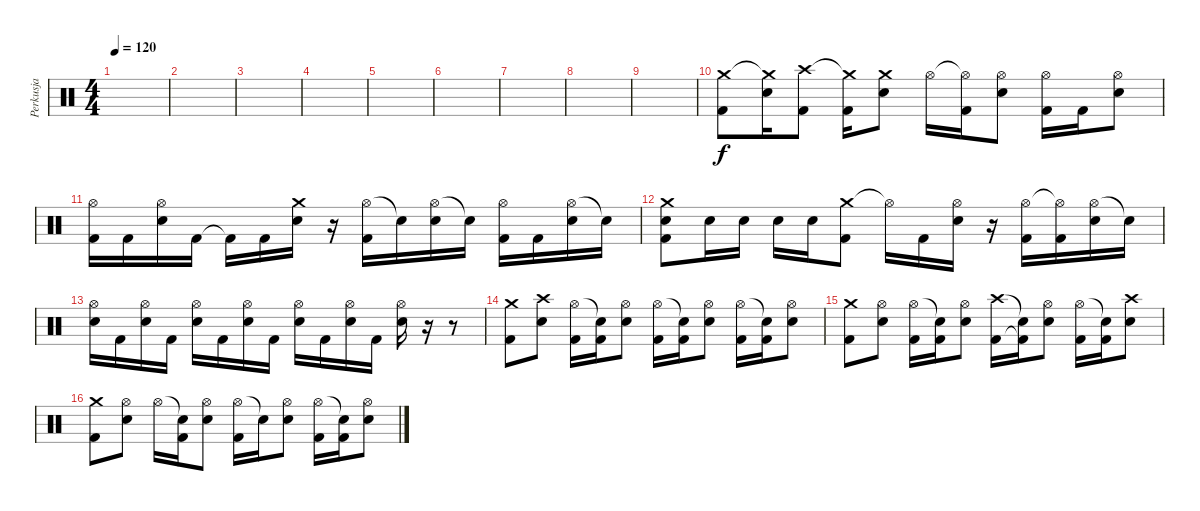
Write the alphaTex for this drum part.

\track ("Perkusja" "Perkusja") {instrument percussion}
\staff {score}
\articulation defaults
\ts (4 4)
\tempo 120
\clef neutral
\ks c
|
|
|
|
|
|
|
|
|
("Crash medium (hit)" "Kick (hit) 2").8 ("Crash medium (hit)"{t} "Electric Snare (hit)").16 ("Crash high (hit)" "Kick (hit) 2").8 ("Crash medium (hit)"{t} "Kick (hit) 2").16 ("Crash medium (hit)" "Electric Snare (hit)").8 "Hi-Hat (open)".16 ("Hi-Hat (open)"{t} "Kick (hit) 2").16 ("Hi-Hat (open)" "Electric Snare (hit)").8 ("Hi-Hat (open)" "Kick (hit) 2").16 "Kick (hit) 2".16 ("Hi-Hat (open)" "Electric Snare (hit)").8 |
("Hi-Hat (open)" "Kick (hit) 2").16 "Kick (hit) 2".16 ("Hi-Hat (open)" "Electric Snare (hit)").16 "Kick (hit) 2".16 "Kick (hit) 2"{t}.16 "Kick (hit) 2".16 ("Crash medium (hit)" "Electric Snare (hit)").16 r.16 ("Hi-Hat (open)" "Kick (hit) 2").16 "Snare (hit)"{t}.16 ("Hi-Hat (open)" "Electric Snare (hit)").16 "Snare (hit)"{t}.16 ("Hi-Hat (open)" "Kick (hit) 2").16 "Kick (hit) 2".16 ("Hi-Hat (open)" "Electric Snare (hit)").16 "Snare (hit)"{t}.16 |
("Crash medium (hit)" "Electric Snare (hit)" "Kick (hit) 2").8 "Electric Snare (hit)".16 "Electric Snare (hit)".16 "Electric Snare (hit)".16 "Electric Snare (hit)".16 ("Crash medium (hit)" "Kick (hit) 2").8 "Hi-Hat (open)"{t}.16 "Kick (hit) 2".16 ("Hi-Hat (open)" "Electric Snare (hit)").16 r.16 ("Hi-Hat (open)" "Kick (hit) 2").16 ("Hi-Hat (open)"{t} "Kick (hit) 2").16 ("Hi-Hat (open)" "Electric Snare (hit)").16 "Snare (hit)"{t}.16 |
("Electric Snare (hit)" "Hi-Hat (open)").16 "Kick (hit) 2".16 ("Electric Snare (hit)" "Hi-Hat (open)").16 "Kick (hit) 2".16 ("Electric Snare (hit)" "Hi-Hat (open)").16 "Kick (hit) 2".16 ("Electric Snare (hit)" "Hi-Hat (open)").16 "Kick (hit) 2".16 ("Electric Snare (hit)" "Hi-Hat (open)").16 "Kick (hit) 2".16 ("Electric Snare (hit)" "Hi-Hat (open)").16 "Kick (hit) 2".16 ("Electric Snare (hit)" "Hi-Hat (open)").16 r.16 r.8 |
("Crash medium (hit)" "Kick (hit) 2").8 ("Crash high (hit)" "Electric Snare (hit)").8 ("Hi-Hat (open)" "Kick (hit) 2").16 ("Snare (hit)"{t} "Kick (hit) 2").16 ("Hi-Hat (open)" "Electric Snare (hit)").8 ("Hi-Hat (open)" "Kick (hit) 2").16 ("Snare (hit)"{t} "Kick (hit) 2").16 ("Hi-Hat (open)" "Electric Snare (hit)").8 ("Hi-Hat (open)" "Kick (hit) 2").16 ("Snare (hit)"{t} "Kick (hit) 2").16 ("Hi-Hat (open)" "Electric Snare (hit)").8 |
("Crash medium (hit)" "Kick (hit) 2").8 ("Hi-Hat (open)" "Electric Snare (hit)").8 ("Hi-Hat (open)" "Kick (hit) 2").16 ("Snare (hit)"{t} "Kick (hit) 2").16 ("Hi-Hat (open)" "Electric Snare (hit)").8 ("Crash high (hit)" "Kick (hit) 2").16 ("Snare (hit)"{t} "Kick (hit) 2"{t}).16 ("Hi-Hat (open)" "Electric Snare (hit)").8 ("Hi-Hat (open)" "Kick (hit) 2").16 ("Snare (hit)"{t} "Kick (hit) 2").16 ("Crash high (hit)" "Electric Snare (hit)").8 |
("Crash medium (hit)" "Kick (hit) 2").8 ("Hi-Hat (open)" "Electric Snare (hit)").8 "Hi-Hat (open)".16 ("Snare (hit)"{t} "Kick (hit) 2").16 ("Hi-Hat (open)" "Electric Snare (hit)").8 ("Hi-Hat (open)" "Kick (hit) 2").16 "Snare (hit)"{t}.16 ("Hi-Hat (open)" "Electric Snare (hit)").8 ("Hi-Hat (open)" "Kick (hit) 2").16 ("Snare (hit)"{t} "Kick (hit) 2").16 ("Hi-Hat (open)" "Electric Snare (hit)").8
